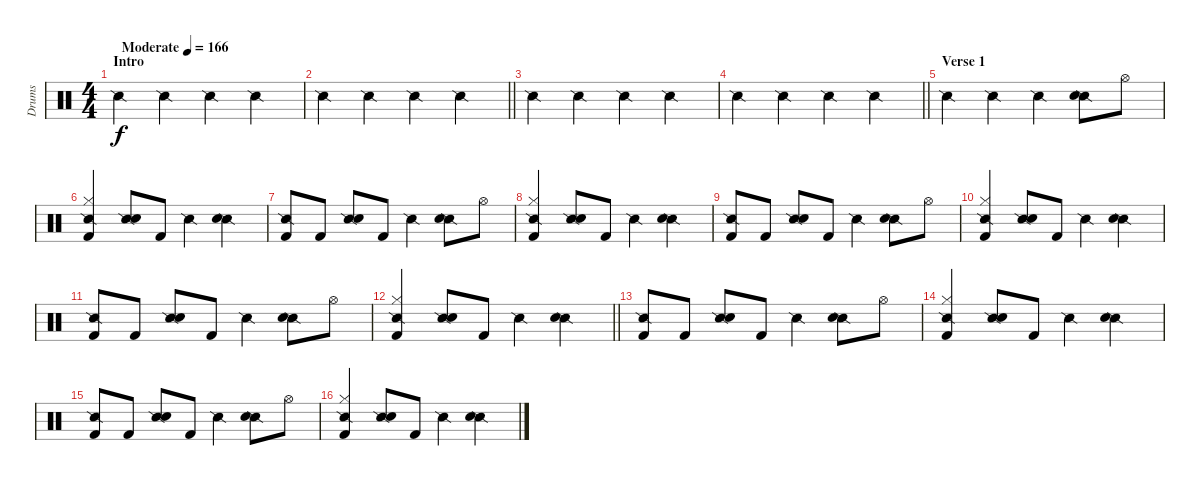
\track ("Drums" "Drums") {instrument percussion}
\staff {score}
\articulation defaults
\ts (4 4)
\section ("" "Intro")
\tempo (166 "Moderate")
\clef neutral
\ks c "Snare (side stick) 2".4{dy f} "Snare (side stick) 2".4 "Snare (side stick) 2".4 "Snare (side stick) 2".4
|
\barLineRight lightlight "Snare (side stick) 2".4 "Snare (side stick) 2".4 "Snare (side stick) 2".4 "Snare (side stick) 2".4
|
"Snare (side stick) 2".4 "Snare (side stick) 2".4 "Snare (side stick) 2".4 "Snare (side stick) 2".4 |
\barLineRight lightlight "Snare (side stick) 2".4 "Snare (side stick) 2".4 "Snare (side stick) 2".4 "Snare (side stick) 2".4
|
\section ("" "Verse 1")
"Snare (side stick) 2".4 "Snare (side stick) 2".4 "Snare (side stick) 2".4 ("Snare (side stick) 2" "Electric Snare (hit)").8 "Hi-Hat (open)".8 |
("Snare (side stick) 2" "Hi-Hat (closed)" "Kick (hit) 2").4 ("Snare (side stick) 2" "Electric Snare (hit)").8 "Kick (hit) 2".8 "Snare (side stick) 2".4 ("Snare (side stick) 2" "Electric Snare (hit)").4 |
("Snare (side stick) 2" "Kick (hit) 2").8 "Kick (hit) 2".8 ("Snare (side stick) 2" "Electric Snare (hit)").8 "Kick (hit) 2".8 "Snare (side stick) 2".4 ("Snare (side stick) 2" "Electric Snare (hit)").8 "Hi-Hat (open)".8 |
("Snare (side stick) 2" "Hi-Hat (closed)" "Kick (hit) 2").4 ("Snare (side stick) 2" "Electric Snare (hit)").8 "Kick (hit) 2".8 "Snare (side stick) 2".4 ("Snare (side stick) 2" "Electric Snare (hit)").4 |
("Snare (side stick) 2" "Kick (hit) 2").8 "Kick (hit) 2".8 ("Snare (side stick) 2" "Electric Snare (hit)").8 "Kick (hit) 2".8 "Snare (side stick) 2".4 ("Snare (side stick) 2" "Electric Snare (hit)").8 "Hi-Hat (open)".8 |
("Snare (side stick) 2" "Hi-Hat (closed)" "Kick (hit) 2").4 ("Snare (side stick) 2" "Electric Snare (hit)").8 "Kick (hit) 2".8 "Snare (side stick) 2".4 ("Snare (side stick) 2" "Electric Snare (hit)").4 |
("Snare (side stick) 2" "Kick (hit) 2").8 "Kick (hit) 2".8 ("Snare (side stick) 2" "Electric Snare (hit)").8 "Kick (hit) 2".8 "Snare (side stick) 2".4 ("Snare (side stick) 2" "Electric Snare (hit)").8 "Hi-Hat (open)".8 |
\barLineRight lightlight
("Snare (side stick) 2" "Hi-Hat (closed)" "Kick (hit) 2").4 ("Snare (side stick) 2" "Electric Snare (hit)").8 "Kick (hit) 2".8 "Snare (side stick) 2".4 ("Snare (side stick) 2" "Electric Snare (hit)").4 |
("Snare (side stick) 2" "Kick (hit) 2").8 "Kick (hit) 2".8 ("Snare (side stick) 2" "Electric Snare (hit)").8 "Kick (hit) 2".8 "Snare (side stick) 2".4 ("Snare (side stick) 2" "Electric Snare (hit)").8 "Hi-Hat (open)".8 |
("Snare (side stick) 2" "Hi-Hat (closed)" "Kick (hit) 2").4 ("Snare (side stick) 2" "Electric Snare (hit)").8 "Kick (hit) 2".8 "Snare (side stick) 2".4 ("Snare (side stick) 2" "Electric Snare (hit)").4 |
("Snare (side stick) 2" "Kick (hit) 2").8 "Kick (hit) 2".8 ("Snare (side stick) 2" "Electric Snare (hit)").8 "Kick (hit) 2".8 "Snare (side stick) 2".4 ("Snare (side stick) 2" "Electric Snare (hit)").8 "Hi-Hat (open)".8 |
("Snare (side stick) 2" "Hi-Hat (closed)" "Kick (hit) 2").4 ("Snare (side stick) 2" "Electric Snare (hit)").8 "Kick (hit) 2".8 "Snare (side stick) 2".4 ("Snare (side stick) 2" "Electric Snare (hit)").4
